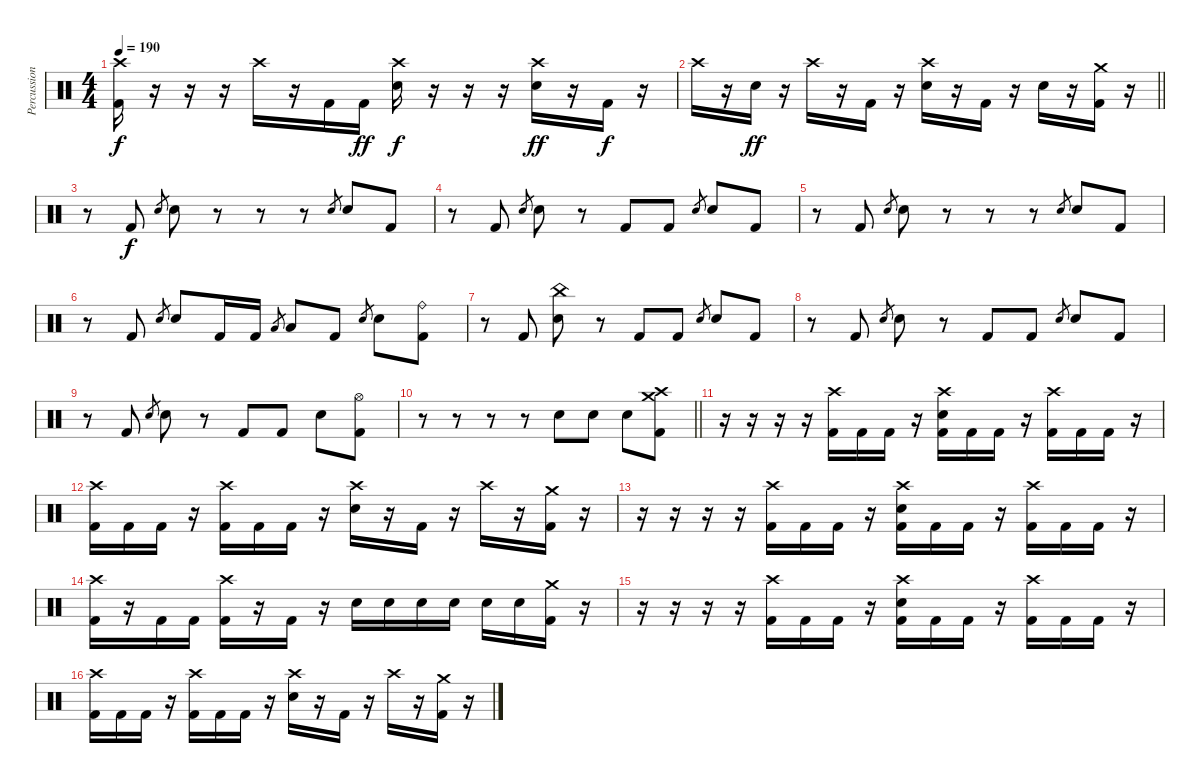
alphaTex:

\track ("Percussion" "Percussion") {instrument percussion}
\staff {score}
\articulation defaults
\ts (4 4)
\tempo 190
\clef neutral
\ks c
("Crash high (hit)" "Kick (hit) 2").16{dy f} r.16 r.16 r.16 "Crash high (hit)".16 r.16 "Kick (hit) 2".16 "Kick (hit) 2".16{dy ff} ("Crash high (hit)" "Snare (hit) 2").16{dy f} r.16 r.16 r.16 ("Crash high (hit)" "Snare (hit) 2").16{dy ff} r.16 "Kick (hit) 2".16{dy f} r.16 |
\barLineRight lightlight "Crash high (hit)".16
r.16 "Snare (hit) 2".16{dy ff} r.16 "Crash high (hit)".16 r.16 "Kick (hit) 2".16 r.16 ("Crash high (hit)" "Snare (hit) 2").16 r.16 "Kick (hit) 2".16 r.16 "Snare (hit) 2".16 r.16 ("Crash medium (hit)" "Kick (hit) 2").16 r.16 |
\section ("" "")
r.8 "Kick (hit) 2".8{dy f} "Snare (hit) 2".8{gr} "Snare (hit) 2".8 r.8 r.8 r.8 "Snare (hit) 2".8{gr} "Snare (hit) 2".8 "Kick (hit) 2".8 |
r.8 "Kick (hit) 2".8 "Snare (hit) 2".8{gr} "Snare (hit) 2".8 r.8 "Kick (hit) 2".8 "Kick (hit) 2".8 "Snare (hit) 2".8{gr} "Snare (hit) 2".8 "Kick (hit) 2".8 |
r.8 "Kick (hit) 2".8 "Snare (hit) 2".8{gr} "Snare (hit) 2".8 r.8 r.8 r.8 "Snare (hit) 2".8{gr} "Snare (hit) 2".8 "Kick (hit) 2".8 |
r.8 "Kick (hit) 2".8 "Snare (hit) 2".8{gr} "Snare (hit) 2".8 "Kick (hit) 2".16 "Kick (hit) 2".16 "Low Tom (hit)".8{gr} "Low Tom (hit)".8 "Kick (hit) 2".8 "Snare (hit) 2".8{gr} "Snare (hit) 2".8 ("Ride (bell)" "Kick (hit) 2").8 |
r.8 "Kick (hit) 2".8 ("China (hit)" "Snare (hit) 2").8 r.8 "Kick (hit) 2".8 "Kick (hit) 2".8 "Snare (hit) 2".8{gr} "Snare (hit) 2".8 "Kick (hit) 2".8 |
r.8 "Kick (hit) 2".8 "Snare (hit) 2".8{gr} "Snare (hit) 2".8 r.8 "Kick (hit) 2".8 "Kick (hit) 2".8 "Snare (hit) 2".8{gr} "Snare (hit) 2".8 "Kick (hit) 2".8 |
r.8 "Kick (hit) 2".8 "Snare (hit) 2".8{gr} "Snare (hit) 2".8 r.8 "Kick (hit) 2".8 "Kick (hit) 2".8 "Snare (hit) 2".8 ("Hi-Hat (open)" "Kick (hit) 2").8 |
\barLineRight lightlight
r.8 r.8 r.8 r.8 "Snare (hit) 2".8 "Snare (hit) 2".8 "Snare (hit) 2".8 ("Crash medium (hit)" "Crash high (hit)" "Kick (hit) 2").8 |
\section ("" "")
r.16 r.16 r.16 r.16 ("Crash high (hit)" "Kick (hit) 2").16 "Kick (hit) 2".16 "Kick (hit) 2".16 r.16 ("Crash high (hit)" "Snare (hit) 2" "Kick (hit) 2").16 "Kick (hit) 2".16 "Kick (hit) 2".16 r.16 ("Crash high (hit)" "Kick (hit) 2").16 "Kick (hit) 2".16 "Kick (hit) 2".16 r.16 |
("Crash high (hit)" "Kick (hit) 2").16 "Kick (hit) 2".16 "Kick (hit) 2".16 r.16 ("Crash high (hit)" "Kick (hit) 2").16 "Kick (hit) 2".16 "Kick (hit) 2".16 r.16 ("Crash high (hit)" "Snare (hit) 2").16 r.16 "Kick (hit) 2".16 r.16 "Crash high (hit)".16 r.16 ("Crash medium (hit)" "Kick (hit) 2").16 r.16 |
r.16 r.16 r.16 r.16 ("Crash high (hit)" "Kick (hit) 2").16 "Kick (hit) 2".16 "Kick (hit) 2".16 r.16 ("Crash high (hit)" "Snare (hit) 2" "Kick (hit) 2").16 "Kick (hit) 2".16 "Kick (hit) 2".16 r.16 ("Crash high (hit)" "Kick (hit) 2").16 "Kick (hit) 2".16 "Kick (hit) 2".16 r.16 |
("Crash high (hit)" "Kick (hit) 2").16 r.16 "Kick (hit) 2".16 "Kick (hit) 2".16 ("Crash high (hit)" "Kick (hit) 2").16 r.16 "Kick (hit) 2".16 r.16 "Snare (hit) 2".16 "Snare (hit) 2".16 "Snare (hit) 2".16 "Snare (hit) 2".16 "Snare (hit) 2".16 "Snare (hit) 2".16 ("Crash medium (hit)" "Kick (hit) 2").16 r.16 |
r.16 r.16 r.16 r.16 ("Crash high (hit)" "Kick (hit) 2").16 "Kick (hit) 2".16 "Kick (hit) 2".16 r.16 ("Crash high (hit)" "Snare (hit) 2" "Kick (hit) 2").16 "Kick (hit) 2".16 "Kick (hit) 2".16 r.16 ("Crash high (hit)" "Kick (hit) 2").16 "Kick (hit) 2".16 "Kick (hit) 2".16 r.16 |
("Crash high (hit)" "Kick (hit) 2").16 "Kick (hit) 2".16 "Kick (hit) 2".16 r.16 ("Crash high (hit)" "Kick (hit) 2").16 "Kick (hit) 2".16 "Kick (hit) 2".16 r.16 ("Crash high (hit)" "Snare (hit) 2").16 r.16 "Kick (hit) 2".16 r.16 "Crash high (hit)".16 r.16 ("Crash medium (hit)" "Kick (hit) 2").16 r.16
